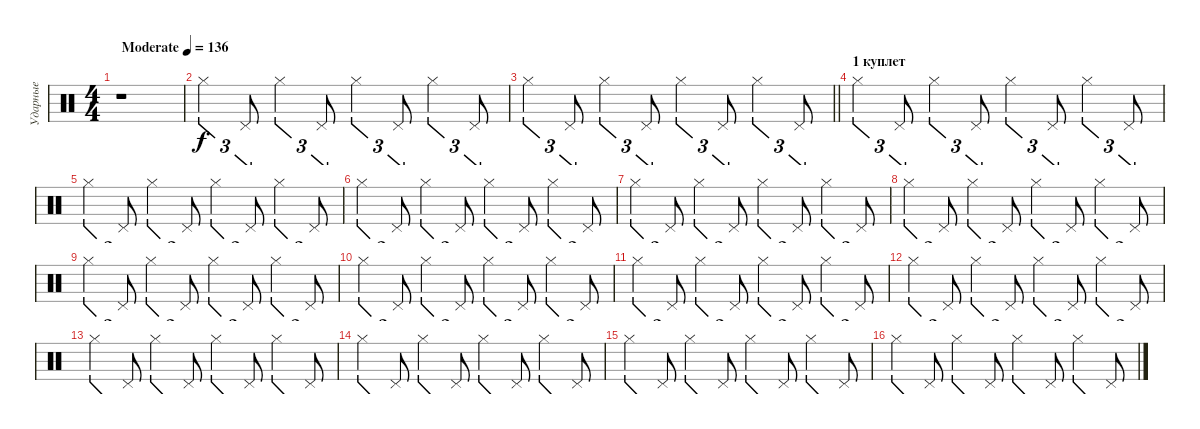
\track ("Ударные" "Ударные") {instrument percussion}
\staff {score}
\articulation defaults
\ts (4 4)
\tempo (136 "Moderate")
\clef neutral
\ks c
r.1{dy f} |
"Hi-Hat (closed)".4{tu (3 2)} "Pedal Hi-Hat (hit)".8{tu (3 2)} "Hi-Hat (closed)".4{tu (3 2)} "Pedal Hi-Hat (hit)".8{tu (3 2)} "Hi-Hat (closed)".4{tu (3 2)} "Pedal Hi-Hat (hit)".8{tu (3 2)} "Hi-Hat (closed)".4{tu (3 2)} "Pedal Hi-Hat (hit)".8{tu (3 2)} |
\barLineRight lightlight "Hi-Hat (closed)".4{tu (3 2)} "Pedal Hi-Hat (hit)".8{tu (3 2)} "Hi-Hat (closed)".4{tu (3 2)} "Pedal Hi-Hat (hit)".8{tu (3 2)} "Hi-Hat (closed)".4{tu (3 2)} "Pedal Hi-Hat (hit)".8{tu (3 2)} "Hi-Hat (closed)".4{tu (3 2)} "Pedal Hi-Hat (hit)".8{tu (3 2)}
|
\section ("" "1 куплет")
"Hi-Hat (closed)".4{tu (3 2)} "Pedal Hi-Hat (hit)".8{tu (3 2)} "Hi-Hat (closed)".4{tu (3 2)} "Pedal Hi-Hat (hit)".8{tu (3 2)} "Hi-Hat (closed)".4{tu (3 2)} "Pedal Hi-Hat (hit)".8{tu (3 2)} "Hi-Hat (closed)".4{tu (3 2)} "Pedal Hi-Hat (hit)".8{tu (3 2)} |
"Hi-Hat (closed)".4{tu (3 2)} "Pedal Hi-Hat (hit)".8{tu (3 2)} "Hi-Hat (closed)".4{tu (3 2)} "Pedal Hi-Hat (hit)".8{tu (3 2)} "Hi-Hat (closed)".4{tu (3 2)} "Pedal Hi-Hat (hit)".8{tu (3 2)} "Hi-Hat (closed)".4{tu (3 2)} "Pedal Hi-Hat (hit)".8{tu (3 2)} |
"Hi-Hat (closed)".4{tu (3 2)} "Pedal Hi-Hat (hit)".8{tu (3 2)} "Hi-Hat (closed)".4{tu (3 2)} "Pedal Hi-Hat (hit)".8{tu (3 2)} "Hi-Hat (closed)".4{tu (3 2)} "Pedal Hi-Hat (hit)".8{tu (3 2)} "Hi-Hat (closed)".4{tu (3 2)} "Pedal Hi-Hat (hit)".8{tu (3 2)} |
"Hi-Hat (closed)".4{tu (3 2)} "Pedal Hi-Hat (hit)".8{tu (3 2)} "Hi-Hat (closed)".4{tu (3 2)} "Pedal Hi-Hat (hit)".8{tu (3 2)} "Hi-Hat (closed)".4{tu (3 2)} "Pedal Hi-Hat (hit)".8{tu (3 2)} "Hi-Hat (closed)".4{tu (3 2)} "Pedal Hi-Hat (hit)".8{tu (3 2)} |
"Hi-Hat (closed)".4{tu (3 2)} "Pedal Hi-Hat (hit)".8{tu (3 2)} "Hi-Hat (closed)".4{tu (3 2)} "Pedal Hi-Hat (hit)".8{tu (3 2)} "Hi-Hat (closed)".4{tu (3 2)} "Pedal Hi-Hat (hit)".8{tu (3 2)} "Hi-Hat (closed)".4{tu (3 2)} "Pedal Hi-Hat (hit)".8{tu (3 2)} |
"Hi-Hat (closed)".4{tu (3 2)} "Pedal Hi-Hat (hit)".8{tu (3 2)} "Hi-Hat (closed)".4{tu (3 2)} "Pedal Hi-Hat (hit)".8{tu (3 2)} "Hi-Hat (closed)".4{tu (3 2)} "Pedal Hi-Hat (hit)".8{tu (3 2)} "Hi-Hat (closed)".4{tu (3 2)} "Pedal Hi-Hat (hit)".8{tu (3 2)} |
"Hi-Hat (closed)".4{tu (3 2)} "Pedal Hi-Hat (hit)".8{tu (3 2)} "Hi-Hat (closed)".4{tu (3 2)} "Pedal Hi-Hat (hit)".8{tu (3 2)} "Hi-Hat (closed)".4{tu (3 2)} "Pedal Hi-Hat (hit)".8{tu (3 2)} "Hi-Hat (closed)".4{tu (3 2)} "Pedal Hi-Hat (hit)".8{tu (3 2)} |
"Hi-Hat (closed)".4{tu (3 2)} "Pedal Hi-Hat (hit)".8{tu (3 2)} "Hi-Hat (closed)".4{tu (3 2)} "Pedal Hi-Hat (hit)".8{tu (3 2)} "Hi-Hat (closed)".4{tu (3 2)} "Pedal Hi-Hat (hit)".8{tu (3 2)} "Hi-Hat (closed)".4{tu (3 2)} "Pedal Hi-Hat (hit)".8{tu (3 2)} |
"Hi-Hat (closed)".4{tu (3 2)} "Pedal Hi-Hat (hit)".8{tu (3 2)} "Hi-Hat (closed)".4{tu (3 2)} "Pedal Hi-Hat (hit)".8{tu (3 2)} "Hi-Hat (closed)".4{tu (3 2)} "Pedal Hi-Hat (hit)".8{tu (3 2)} "Hi-Hat (closed)".4{tu (3 2)} "Pedal Hi-Hat (hit)".8{tu (3 2)} |
"Hi-Hat (closed)".4{tu (3 2)} "Pedal Hi-Hat (hit)".8{tu (3 2)} "Hi-Hat (closed)".4{tu (3 2)} "Pedal Hi-Hat (hit)".8{tu (3 2)} "Hi-Hat (closed)".4{tu (3 2)} "Pedal Hi-Hat (hit)".8{tu (3 2)} "Hi-Hat (closed)".4{tu (3 2)} "Pedal Hi-Hat (hit)".8{tu (3 2)} |
"Hi-Hat (closed)".4{tu (3 2)} "Pedal Hi-Hat (hit)".8{tu (3 2)} "Hi-Hat (closed)".4{tu (3 2)} "Pedal Hi-Hat (hit)".8{tu (3 2)} "Hi-Hat (closed)".4{tu (3 2)} "Pedal Hi-Hat (hit)".8{tu (3 2)} "Hi-Hat (closed)".4{tu (3 2)} "Pedal Hi-Hat (hit)".8{tu (3 2)} |
"Hi-Hat (closed)".4{tu (3 2)} "Pedal Hi-Hat (hit)".8{tu (3 2)} "Hi-Hat (closed)".4{tu (3 2)} "Pedal Hi-Hat (hit)".8{tu (3 2)} "Hi-Hat (closed)".4{tu (3 2)} "Pedal Hi-Hat (hit)".8{tu (3 2)} "Hi-Hat (closed)".4{tu (3 2)} "Pedal Hi-Hat (hit)".8{tu (3 2)} |
"Hi-Hat (closed)".4{tu (3 2)} "Pedal Hi-Hat (hit)".8{tu (3 2)} "Hi-Hat (closed)".4{tu (3 2)} "Pedal Hi-Hat (hit)".8{tu (3 2)} "Hi-Hat (closed)".4{tu (3 2)} "Pedal Hi-Hat (hit)".8{tu (3 2)} "Hi-Hat (closed)".4{tu (3 2)} "Pedal Hi-Hat (hit)".8{tu (3 2)}
